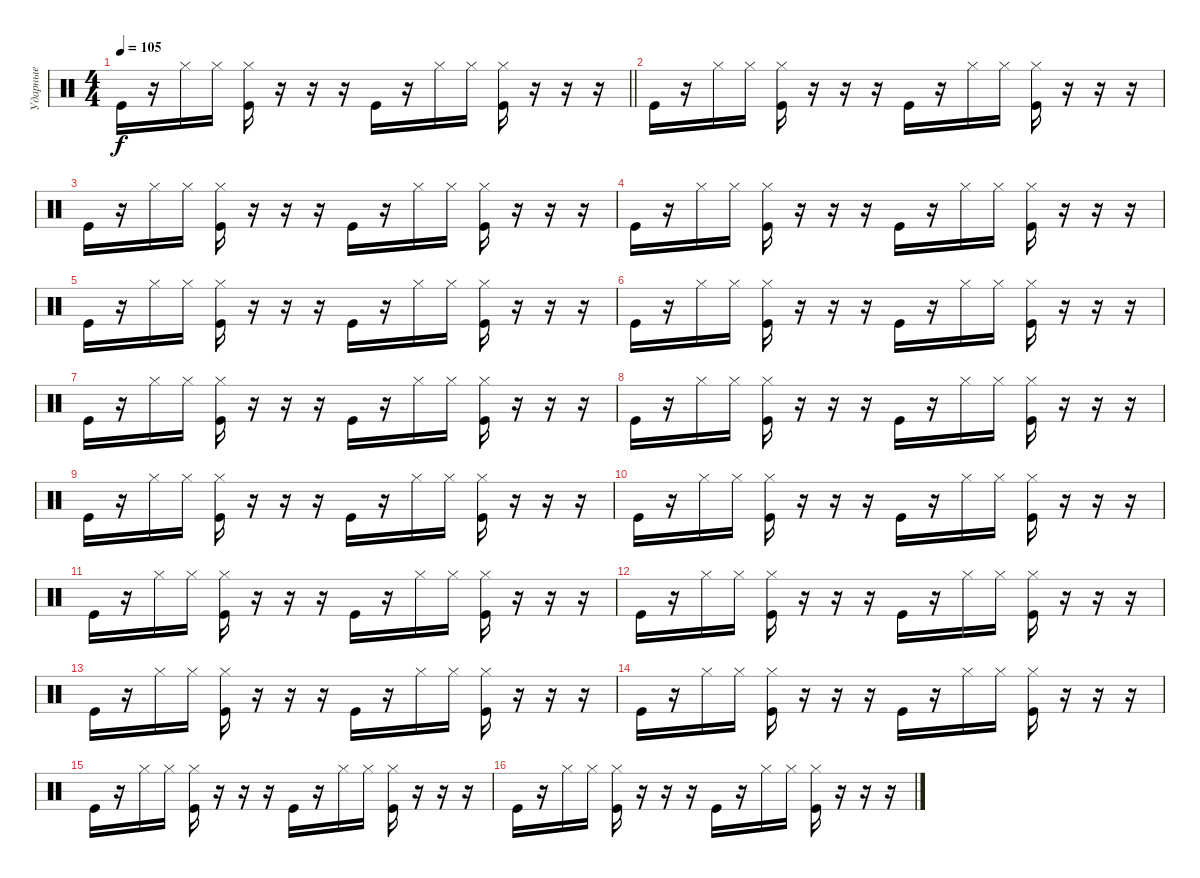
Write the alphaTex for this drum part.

\track ("Ударные" "Ударные") {instrument percussion}
\staff {score}
\articulation defaults
\ts (4 4)
\tempo 105
\clef neutral
\barLineRight lightlight
\ks c "Kick (hit)".16{dy f}
r.16 "Hi-Hat (closed)".16 "Hi-Hat (closed)".16 ("Hi-Hat (closed)" "Kick (hit)").16 r.16 r.16 r.16 "Kick (hit)".16 r.16 "Hi-Hat (closed)".16 "Hi-Hat (closed)".16 ("Hi-Hat (closed)" "Kick (hit)").16 r.16 r.16 r.16 |
"Kick (hit)".16 r.16 "Hi-Hat (closed)".16 "Hi-Hat (closed)".16 ("Hi-Hat (closed)" "Kick (hit)").16 r.16 r.16 r.16 "Kick (hit)".16 r.16 "Hi-Hat (closed)".16 "Hi-Hat (closed)".16 ("Hi-Hat (closed)" "Kick (hit)").16 r.16 r.16 r.16 |
"Kick (hit)".16 r.16 "Hi-Hat (closed)".16 "Hi-Hat (closed)".16 ("Hi-Hat (closed)" "Kick (hit)").16 r.16 r.16 r.16 "Kick (hit)".16 r.16 "Hi-Hat (closed)".16 "Hi-Hat (closed)".16 ("Hi-Hat (closed)" "Kick (hit)").16 r.16 r.16 r.16 |
"Kick (hit)".16 r.16 "Hi-Hat (closed)".16 "Hi-Hat (closed)".16 ("Hi-Hat (closed)" "Kick (hit)").16 r.16 r.16 r.16 "Kick (hit)".16 r.16 "Hi-Hat (closed)".16 "Hi-Hat (closed)".16 ("Hi-Hat (closed)" "Kick (hit)").16 r.16 r.16 r.16 |
"Kick (hit)".16 r.16 "Hi-Hat (closed)".16 "Hi-Hat (closed)".16 ("Hi-Hat (closed)" "Kick (hit)").16 r.16 r.16 r.16 "Kick (hit)".16 r.16 "Hi-Hat (closed)".16 "Hi-Hat (closed)".16 ("Hi-Hat (closed)" "Kick (hit)").16 r.16 r.16 r.16 |
"Kick (hit)".16{volume 8} r.16 "Hi-Hat (closed)".16 "Hi-Hat (closed)".16 ("Hi-Hat (closed)" "Kick (hit)").16 r.16 r.16 r.16 "Kick (hit)".16 r.16 "Hi-Hat (closed)".16 "Hi-Hat (closed)".16 ("Hi-Hat (closed)" "Kick (hit)").16 r.16 r.16 r.16 |
"Kick (hit)".16{volume 6} r.16 "Hi-Hat (closed)".16 "Hi-Hat (closed)".16 ("Hi-Hat (closed)" "Kick (hit)").16 r.16 r.16 r.16 "Kick (hit)".16 r.16 "Hi-Hat (closed)".16 "Hi-Hat (closed)".16 ("Hi-Hat (closed)" "Kick (hit)").16 r.16 r.16 r.16 |
"Kick (hit)".16{volume 4} r.16 "Hi-Hat (closed)".16 "Hi-Hat (closed)".16 ("Hi-Hat (closed)" "Kick (hit)").16 r.16 r.16 r.16 "Kick (hit)".16 r.16 "Hi-Hat (closed)".16 "Hi-Hat (closed)".16 ("Hi-Hat (closed)" "Kick (hit)").16 r.16 r.16 r.16 |
"Kick (hit)".16{volume 2} r.16 "Hi-Hat (closed)".16 "Hi-Hat (closed)".16 ("Hi-Hat (closed)" "Kick (hit)").16 r.16 r.16 r.16 "Kick (hit)".16 r.16 "Hi-Hat (closed)".16 "Hi-Hat (closed)".16 ("Hi-Hat (closed)" "Kick (hit)").16 r.16 r.16 r.16 |
"Kick (hit)".16{volume 0} r.16 "Hi-Hat (closed)".16 "Hi-Hat (closed)".16 ("Hi-Hat (closed)" "Kick (hit)").16 r.16 r.16 r.16 "Kick (hit)".16 r.16 "Hi-Hat (closed)".16 "Hi-Hat (closed)".16 ("Hi-Hat (closed)" "Kick (hit)").16 r.16 r.16 r.16 |
"Kick (hit)".16 r.16 "Hi-Hat (closed)".16 "Hi-Hat (closed)".16 ("Hi-Hat (closed)" "Kick (hit)").16 r.16 r.16 r.16 "Kick (hit)".16 r.16 "Hi-Hat (closed)".16 "Hi-Hat (closed)".16 ("Hi-Hat (closed)" "Kick (hit)").16 r.16 r.16 r.16 |
"Kick (hit)".16 r.16 "Hi-Hat (closed)".16 "Hi-Hat (closed)".16 ("Hi-Hat (closed)" "Kick (hit)").16 r.16 r.16 r.16 "Kick (hit)".16 r.16 "Hi-Hat (closed)".16 "Hi-Hat (closed)".16 ("Hi-Hat (closed)" "Kick (hit)").16 r.16 r.16 r.16 |
"Kick (hit)".16 r.16 "Hi-Hat (closed)".16 "Hi-Hat (closed)".16 ("Hi-Hat (closed)" "Kick (hit)").16 r.16 r.16 r.16 "Kick (hit)".16 r.16 "Hi-Hat (closed)".16 "Hi-Hat (closed)".16 ("Hi-Hat (closed)" "Kick (hit)").16 r.16 r.16 r.16 |
"Kick (hit)".16 r.16 "Hi-Hat (closed)".16 "Hi-Hat (closed)".16 ("Hi-Hat (closed)" "Kick (hit)").16 r.16 r.16 r.16 "Kick (hit)".16 r.16 "Hi-Hat (closed)".16 "Hi-Hat (closed)".16 ("Hi-Hat (closed)" "Kick (hit)").16 r.16 r.16 r.16 |
"Kick (hit)".16 r.16 "Hi-Hat (closed)".16 "Hi-Hat (closed)".16 ("Hi-Hat (closed)" "Kick (hit)").16 r.16 r.16 r.16 "Kick (hit)".16 r.16 "Hi-Hat (closed)".16 "Hi-Hat (closed)".16 ("Hi-Hat (closed)" "Kick (hit)").16 r.16 r.16 r.16 |
"Kick (hit)".16 r.16 "Hi-Hat (closed)".16 "Hi-Hat (closed)".16 ("Hi-Hat (closed)" "Kick (hit)").16 r.16 r.16 r.16 "Kick (hit)".16 r.16 "Hi-Hat (closed)".16 "Hi-Hat (closed)".16 ("Hi-Hat (closed)" "Kick (hit)").16 r.16 r.16 r.16
